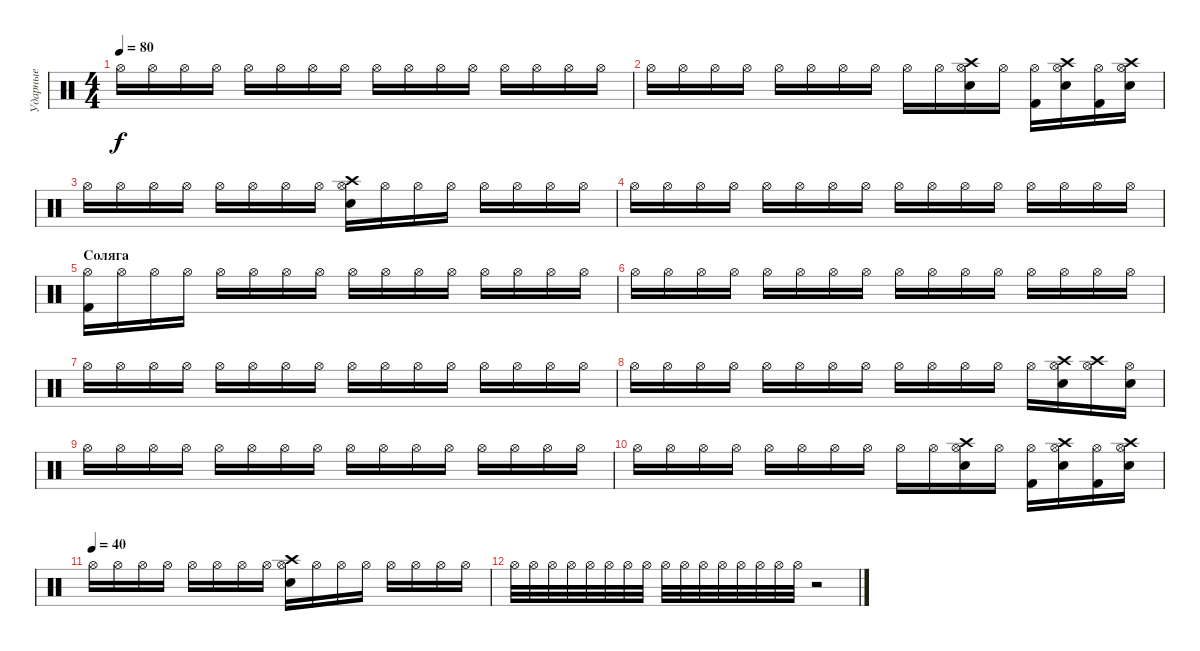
\track ("Ударные" "Ударные") {instrument percussion}
\staff {score}
\articulation defaults
\ts (4 4)
\tempo 80
\clef neutral
\ks c "Hi-Hat (open)".16{dy f} "Hi-Hat (open)".16 "Hi-Hat (open)".16 "Hi-Hat (open)".16 "Hi-Hat (open)".16 "Hi-Hat (open)".16 "Hi-Hat (open)".16 "Hi-Hat (open)".16 "Hi-Hat (open)".16 "Hi-Hat (open)".16 "Hi-Hat (open)".16 "Hi-Hat (open)".16 "Hi-Hat (open)".16 "Hi-Hat (open)".16 "Hi-Hat (open)".16 "Hi-Hat (open)".16
|
"Hi-Hat (open)".16 "Hi-Hat (open)".16 "Hi-Hat (open)".16 "Hi-Hat (open)".16 "Hi-Hat (open)".16 "Hi-Hat (open)".16 "Hi-Hat (open)".16 "Hi-Hat (open)".16 "Hi-Hat (open)".16 "Hi-Hat (open)".16 ("Hi-Hat (open)" "Crash high (hit)" "Snare (hit) 2").16 "Hi-Hat (open)".16 ("Hi-Hat (open)" "Kick (hit) 2").16 ("Hi-Hat (open)" "Crash high (hit)" "Snare (hit) 2").16 ("Hi-Hat (open)" "Kick (hit) 2").16 ("Hi-Hat (open)" "Crash high (hit)" "Snare (hit) 2").16 |
"Hi-Hat (open)".16 "Hi-Hat (open)".16 "Hi-Hat (open)".16 "Hi-Hat (open)".16 "Hi-Hat (open)".16 "Hi-Hat (open)".16 "Hi-Hat (open)".16 "Hi-Hat (open)".16 ("Hi-Hat (open)" "Snare (hit) 2" "Crash high (hit)").16 "Hi-Hat (open)".16 "Hi-Hat (open)".16 "Hi-Hat (open)".16 "Hi-Hat (open)".16 "Hi-Hat (open)".16 "Hi-Hat (open)".16 "Hi-Hat (open)".16 |
"Hi-Hat (open)".16 "Hi-Hat (open)".16 "Hi-Hat (open)".16 "Hi-Hat (open)".16 "Hi-Hat (open)".16 "Hi-Hat (open)".16 "Hi-Hat (open)".16 "Hi-Hat (open)".16 "Hi-Hat (open)".16 "Hi-Hat (open)".16 "Hi-Hat (open)".16 "Hi-Hat (open)".16 "Hi-Hat (open)".16 "Hi-Hat (open)".16 "Hi-Hat (open)".16 "Hi-Hat (open)".16 |
\section ("" "Соляга")
("Hi-Hat (open)" "Kick (hit) 2").16 "Hi-Hat (open)".16 "Hi-Hat (open)".16 "Hi-Hat (open)".16 "Hi-Hat (open)".16 "Hi-Hat (open)".16 "Hi-Hat (open)".16 "Hi-Hat (open)".16 "Hi-Hat (open)".16 "Hi-Hat (open)".16 "Hi-Hat (open)".16 "Hi-Hat (open)".16 "Hi-Hat (open)".16 "Hi-Hat (open)".16 "Hi-Hat (open)".16 "Hi-Hat (open)".16 |
"Hi-Hat (open)".16 "Hi-Hat (open)".16 "Hi-Hat (open)".16 "Hi-Hat (open)".16 "Hi-Hat (open)".16 "Hi-Hat (open)".16 "Hi-Hat (open)".16 "Hi-Hat (open)".16 "Hi-Hat (open)".16 "Hi-Hat (open)".16 "Hi-Hat (open)".16 "Hi-Hat (open)".16 "Hi-Hat (open)".16 "Hi-Hat (open)".16 "Hi-Hat (open)".16 "Hi-Hat (open)".16 |
"Hi-Hat (open)".16 "Hi-Hat (open)".16 "Hi-Hat (open)".16 "Hi-Hat (open)".16 "Hi-Hat (open)".16 "Hi-Hat (open)".16 "Hi-Hat (open)".16 "Hi-Hat (open)".16 "Hi-Hat (open)".16 "Hi-Hat (open)".16 "Hi-Hat (open)".16 "Hi-Hat (open)".16 "Hi-Hat (open)".16 "Hi-Hat (open)".16 "Hi-Hat (open)".16 "Hi-Hat (open)".16 |
"Hi-Hat (open)".16 "Hi-Hat (open)".16 "Hi-Hat (open)".16 "Hi-Hat (open)".16 "Hi-Hat (open)".16 "Hi-Hat (open)".16 "Hi-Hat (open)".16 "Hi-Hat (open)".16 "Hi-Hat (open)".16 "Hi-Hat (open)".16 "Hi-Hat (open)".16 "Hi-Hat (open)".16 "Hi-Hat (open)".16 ("Hi-Hat (open)" "Crash high (hit)" "Snare (hit) 2").16 ("Hi-Hat (open)" "Crash high (hit)").16 ("Hi-Hat (open)" "Snare (hit) 2").16 |
"Hi-Hat (open)".16 "Hi-Hat (open)".16 "Hi-Hat (open)".16 "Hi-Hat (open)".16 "Hi-Hat (open)".16 "Hi-Hat (open)".16 "Hi-Hat (open)".16 "Hi-Hat (open)".16 "Hi-Hat (open)".16 "Hi-Hat (open)".16 "Hi-Hat (open)".16 "Hi-Hat (open)".16 "Hi-Hat (open)".16 "Hi-Hat (open)".16 "Hi-Hat (open)".16 "Hi-Hat (open)".16 |
"Hi-Hat (open)".16 "Hi-Hat (open)".16 "Hi-Hat (open)".16 "Hi-Hat (open)".16 "Hi-Hat (open)".16 "Hi-Hat (open)".16 "Hi-Hat (open)".16 "Hi-Hat (open)".16 "Hi-Hat (open)".16 "Hi-Hat (open)".16 ("Hi-Hat (open)" "Crash high (hit)" "Snare (hit) 2").16 "Hi-Hat (open)".16 ("Hi-Hat (open)" "Kick (hit) 2").16 ("Hi-Hat (open)" "Crash high (hit)" "Snare (hit) 2").16 ("Hi-Hat (open)" "Kick (hit) 2").16 ("Hi-Hat (open)" "Crash high (hit)" "Snare (hit) 2").16 |
\tempo (40)
"Hi-Hat (open)".16 "Hi-Hat (open)".16 "Hi-Hat (open)".16 "Hi-Hat (open)".16 "Hi-Hat (open)".16 "Hi-Hat (open)".16 "Hi-Hat (open)".16 "Hi-Hat (open)".16 ("Hi-Hat (open)" "Snare (hit) 2" "Crash high (hit)").16 "Hi-Hat (open)".16 "Hi-Hat (open)".16 "Hi-Hat (open)".16 "Hi-Hat (open)".16 "Hi-Hat (open)".16 "Hi-Hat (open)".16 "Hi-Hat (open)".16 |
"Hi-Hat (open)".32 "Hi-Hat (open)".32 "Hi-Hat (open)".32 "Hi-Hat (open)".32 "Hi-Hat (open)".32 "Hi-Hat (open)".32 "Hi-Hat (open)".32 "Hi-Hat (open)".32 "Hi-Hat (open)".32 "Hi-Hat (open)".32 "Hi-Hat (open)".32 "Hi-Hat (open)".32 "Hi-Hat (open)".32 "Hi-Hat (open)".32 "Hi-Hat (open)".32 "Hi-Hat (open)".32 r.2
